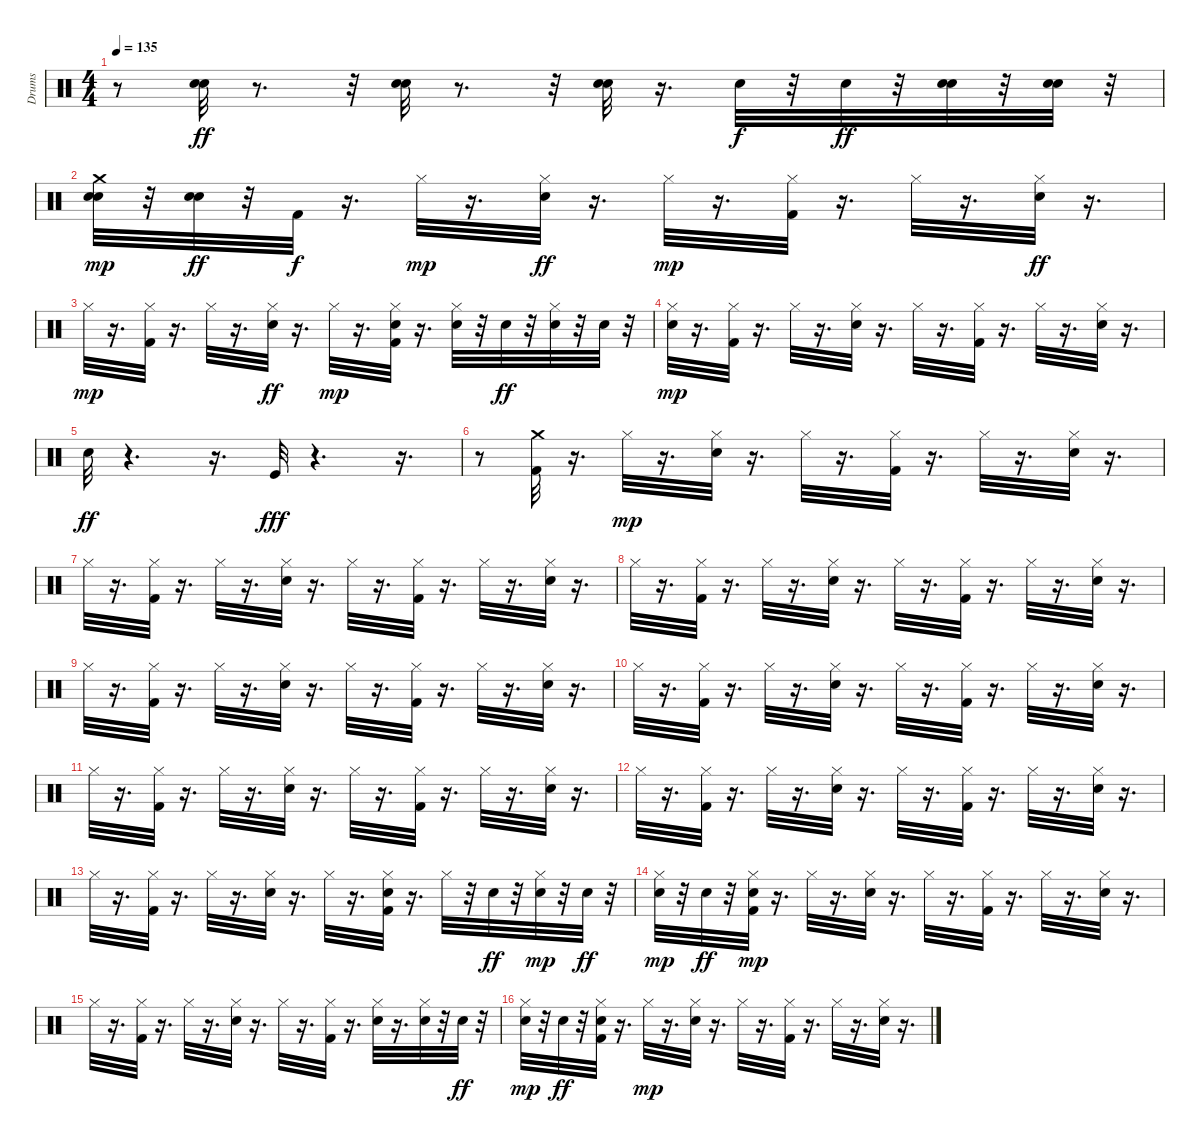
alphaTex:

\track ("Drums" "Drums") {instrument percussion}
\staff {score}
\articulation defaults
\ts (4 4)
\tempo 135
\clef neutral
\ks c
r.8{dy ff} ("Snare (hit) 2" "Electric Snare (hit)").32 r.8{d} r.32 ("Snare (hit) 2" "Electric Snare (hit)").32 r.8{d} r.32 ("Snare (hit) 2" "Electric Snare (hit)").32 r.16{d} "Electric Snare (hit)".32{dy f} r.32 "Snare (hit) 2".32{dy ff} r.32 ("Snare (hit) 2" "Electric Snare (hit)").32 r.32 ("Snare (hit) 2" "Electric Snare (hit)").32 r.32 |
("Snare (hit) 2" "Electric Snare (hit)" "Crash medium (hit)").32{dy mp} r.32 ("Snare (hit) 2" "Electric Snare (hit)").32{dy ff} r.32 "Kick (hit) 2".32{dy f} r.16{d} "Hi-Hat (closed)".32{dy mp} r.16{d} ("Hi-Hat (closed)" "Snare (hit) 2").32{dy ff} r.16{d} "Hi-Hat (closed)".32{dy mp} r.16{d} ("Kick (hit) 2" "Hi-Hat (closed)").32 r.16{d} "Hi-Hat (closed)".32 r.16{d} ("Hi-Hat (closed)" "Snare (hit) 2").32{dy ff} r.16{d} |
"Hi-Hat (closed)".32{dy mp} r.16{d} ("Kick (hit) 2" "Hi-Hat (closed)").32 r.16{d} "Hi-Hat (closed)".32 r.16{d} ("Hi-Hat (closed)" "Snare (hit) 2").32{dy ff} r.16{d} "Hi-Hat (closed)".32{dy mp} r.16{d} ("Snare (hit) 2" "Kick (hit) 2" "Hi-Hat (closed)").32 r.16{d} ("Snare (hit) 2" "Hi-Hat (closed)").32 r.32 "Snare (hit) 2".32{dy ff} r.32 ("Hi-Hat (closed)" "Snare (hit) 2").32 r.32 "Snare (hit) 2".32 r.32 |
("Snare (hit) 2" "Hi-Hat (closed)").32{dy mp} r.16{d} ("Kick (hit) 2" "Hi-Hat (closed)").32 r.16{d} "Hi-Hat (closed)".32 r.16{d} ("Snare (hit) 2" "Hi-Hat (closed)").32 r.16{d} "Hi-Hat (closed)".32 r.16{d} ("Kick (hit) 2" "Hi-Hat (closed)").32 r.16{d} "Hi-Hat (closed)".32 r.16{d} ("Snare (hit) 2" "Hi-Hat (closed)").32 r.16{d} |
"Snare (hit) 2".32{dy ff} r.4{d} r.16{d} "Kick (hit)".32{dy fff} r.4{d} r.16{d} |
r.8 ("Crash medium (hit)" "Kick (hit) 2").32 r.16{d} "Hi-Hat (closed)".32{dy mp} r.16{d} ("Snare (hit) 2" "Hi-Hat (closed)").32 r.16{d} "Hi-Hat (closed)".32 r.16{d} ("Kick (hit) 2" "Hi-Hat (closed)").32 r.16{d} "Hi-Hat (closed)".32 r.16{d} ("Snare (hit) 2" "Hi-Hat (closed)").32 r.16{d} |
"Hi-Hat (closed)".32 r.16{d} ("Kick (hit) 2" "Hi-Hat (closed)").32 r.16{d} "Hi-Hat (closed)".32 r.16{d} ("Snare (hit) 2" "Hi-Hat (closed)").32 r.16{d} "Hi-Hat (closed)".32 r.16{d} ("Kick (hit) 2" "Hi-Hat (closed)").32 r.16{d} "Hi-Hat (closed)".32 r.16{d} ("Snare (hit) 2" "Hi-Hat (closed)").32 r.16{d} |
"Hi-Hat (closed)".32 r.16{d} ("Kick (hit) 2" "Hi-Hat (closed)").32 r.16{d} "Hi-Hat (closed)".32 r.16{d} ("Snare (hit) 2" "Hi-Hat (closed)").32 r.16{d} "Hi-Hat (closed)".32 r.16{d} ("Kick (hit) 2" "Hi-Hat (closed)").32 r.16{d} "Hi-Hat (closed)".32 r.16{d} ("Snare (hit) 2" "Hi-Hat (closed)").32 r.16{d} |
"Hi-Hat (closed)".32 r.16{d} ("Hi-Hat (closed)" "Kick (hit) 2").32 r.16{d} "Hi-Hat (closed)".32 r.16{d} ("Snare (hit) 2" "Hi-Hat (closed)").32 r.16{d} "Hi-Hat (closed)".32 r.16{d} ("Kick (hit) 2" "Hi-Hat (closed)").32 r.16{d} "Hi-Hat (closed)".32 r.16{d} ("Snare (hit) 2" "Hi-Hat (closed)").32 r.16{d} |
"Hi-Hat (closed)".32 r.16{d} ("Kick (hit) 2" "Hi-Hat (closed)").32 r.16{d} "Hi-Hat (closed)".32 r.16{d} ("Snare (hit) 2" "Hi-Hat (closed)").32 r.16{d} "Hi-Hat (closed)".32 r.16{d} ("Kick (hit) 2" "Hi-Hat (closed)").32 r.16{d} "Hi-Hat (closed)".32 r.16{d} ("Snare (hit) 2" "Hi-Hat (closed)").32 r.16{d} |
"Hi-Hat (closed)".32 r.16{d} ("Kick (hit) 2" "Hi-Hat (closed)").32 r.16{d} "Hi-Hat (closed)".32 r.16{d} ("Snare (hit) 2" "Hi-Hat (closed)").32 r.16{d} "Hi-Hat (closed)".32 r.16{d} ("Kick (hit) 2" "Hi-Hat (closed)").32 r.16{d} "Hi-Hat (closed)".32 r.16{d} ("Snare (hit) 2" "Hi-Hat (closed)").32 r.16{d} |
"Hi-Hat (closed)".32 r.16{d} ("Kick (hit) 2" "Hi-Hat (closed)").32 r.16{d} "Hi-Hat (closed)".32 r.16{d} ("Snare (hit) 2" "Hi-Hat (closed)").32 r.16{d} "Hi-Hat (closed)".32 r.16{d} ("Kick (hit) 2" "Hi-Hat (closed)").32 r.16{d} "Hi-Hat (closed)".32 r.16{d} ("Snare (hit) 2" "Hi-Hat (closed)").32 r.16{d} |
"Hi-Hat (closed)".32 r.16{d} ("Kick (hit) 2" "Hi-Hat (closed)").32 r.16{d} "Hi-Hat (closed)".32 r.16{d} ("Snare (hit) 2" "Hi-Hat (closed)").32 r.16{d} "Hi-Hat (closed)".32 r.16{d} ("Snare (hit) 2" "Kick (hit) 2" "Hi-Hat (closed)").32 r.16{d} "Hi-Hat (closed)".32 r.32 "Snare (hit) 2".32{dy ff} r.32 ("Snare (hit) 2" "Hi-Hat (closed)").32{dy mp} r.32 "Snare (hit) 2".32{dy ff} r.32 |
("Snare (hit) 2" "Hi-Hat (closed)").32{dy mp} r.32 "Snare (hit) 2".32{dy ff} r.32 ("Snare (hit) 2" "Kick (hit) 2" "Hi-Hat (closed)").32{dy mp} r.16{d} "Hi-Hat (closed)".32 r.16{d} ("Snare (hit) 2" "Hi-Hat (closed)").32 r.16{d} "Hi-Hat (closed)".32 r.16{d} ("Kick (hit) 2" "Hi-Hat (closed)").32 r.16{d} "Hi-Hat (closed)".32 r.16{d} ("Snare (hit) 2" "Hi-Hat (closed)").32 r.16{d} |
"Hi-Hat (closed)".32 r.16{d} ("Kick (hit) 2" "Hi-Hat (closed)").32 r.16{d} "Hi-Hat (closed)".32 r.16{d} ("Snare (hit) 2" "Hi-Hat (closed)").32 r.16{d} "Hi-Hat (closed)".32 r.16{d} ("Kick (hit) 2" "Hi-Hat (closed)").32 r.16{d} ("Snare (hit) 2" "Hi-Hat (closed)").32 r.16{d} ("Snare (hit) 2" "Hi-Hat (closed)").32 r.32 "Snare (hit) 2".32{dy ff} r.32 |
("Snare (hit) 2" "Hi-Hat (closed)").32{dy mp} r.32 "Snare (hit) 2".32{dy ff} r.32 ("Kick (hit) 2" "Hi-Hat (closed)" "Snare (hit) 2").32 r.16{d} "Hi-Hat (closed)".32{dy mp} r.16{d} ("Snare (hit) 2" "Hi-Hat (closed)").32 r.16{d} "Hi-Hat (closed)".32 r.16{d} ("Kick (hit) 2" "Hi-Hat (closed)").32 r.16{d} "Hi-Hat (closed)".32 r.16{d} ("Snare (hit) 2" "Hi-Hat (closed)").32 r.16{d}
